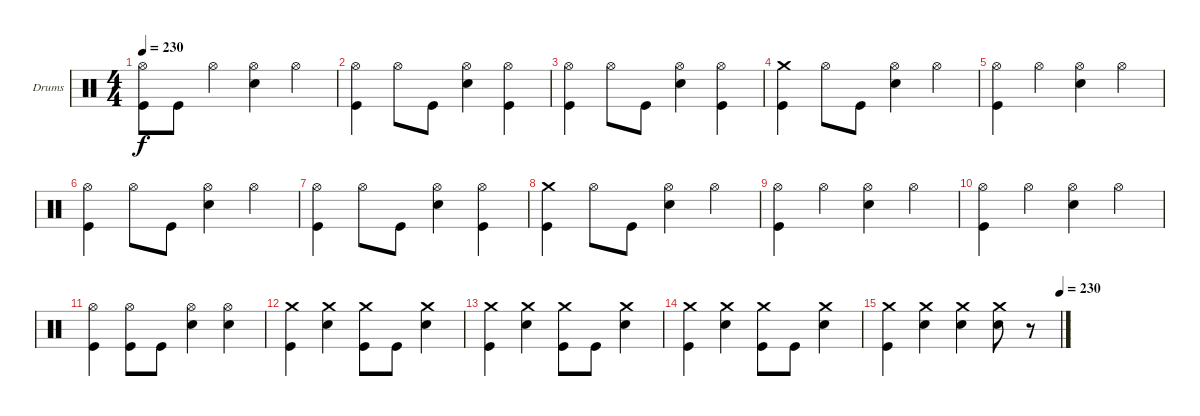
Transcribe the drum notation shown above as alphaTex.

\defaultSystemsLayout 4
\bracketExtendMode groupsimilarinstruments
\firstSystemTrackNameOrientation horizontal
\otherSystemsTrackNameOrientation horizontal
\track ("Drumkit" "Drums") {instrument percussion}
\staff {score}
\articulation defaults
\ts (4 4)
\tempo 230
\clef neutral
\ks c
("Kick (hit)" "Hi-Hat (open)").8{dy f} "Kick (hit)".8 "Hi-Hat (open)".4 ("Snare (hit) 2" "Hi-Hat (open)").4 "Hi-Hat (open)".4 |
("Kick (hit)" "Hi-Hat (open)").4 "Hi-Hat (open)".8 "Kick (hit)".8 ("Snare (hit) 2" "Hi-Hat (open)").4 ("Kick (hit)" "Hi-Hat (open)").4 |
("Kick (hit)" "Hi-Hat (open)").4 "Hi-Hat (open)".8 "Kick (hit)".8 ("Snare (hit) 2" "Hi-Hat (open)").4 ("Kick (hit)" "Hi-Hat (open)").4 |
("Kick (hit)" "Crash medium (hit)").4 "Hi-Hat (open)".8 "Kick (hit)".8 ("Snare (hit) 2" "Hi-Hat (open)").4 "Hi-Hat (open)".4 |
("Kick (hit)" "Hi-Hat (open)").4 "Hi-Hat (open)".4 ("Snare (hit) 2" "Hi-Hat (open)").4 "Hi-Hat (open)".4 |
("Kick (hit)" "Hi-Hat (open)").4 "Hi-Hat (open)".8 "Kick (hit)".8 ("Snare (hit) 2" "Hi-Hat (open)").4 "Hi-Hat (open)".4 |
("Kick (hit)" "Hi-Hat (open)").4 "Hi-Hat (open)".8 "Kick (hit)".8 ("Snare (hit) 2" "Hi-Hat (open)").4 ("Kick (hit)" "Hi-Hat (open)").4 |
("Kick (hit)" "Crash medium (hit)").4 "Hi-Hat (open)".8 "Kick (hit)".8 ("Snare (hit) 2" "Hi-Hat (open)").4 "Hi-Hat (open)".4 |
("Kick (hit)" "Hi-Hat (open)").4 "Hi-Hat (open)".4 ("Snare (hit) 2" "Hi-Hat (open)").4 "Hi-Hat (open)".4 |
("Kick (hit)" "Hi-Hat (open)").4 "Hi-Hat (open)".4 ("Snare (hit) 2" "Hi-Hat (open)").4 "Hi-Hat (open)".4 |
("Kick (hit)" "Hi-Hat (open)").4 ("Kick (hit)" "Hi-Hat (open)").8 "Kick (hit)".8 ("Snare (hit) 2" "Hi-Hat (open)").4 ("Snare (hit) 2" "Hi-Hat (open)").4 |
("Kick (hit)" "Crash medium (hit)").4 ("Snare (hit) 2" "Crash medium (hit)").4 ("Kick (hit)" "Crash medium (hit)").8 "Kick (hit)".8 ("Snare (hit) 2" "Crash medium (hit)").4 |
("Kick (hit)" "Crash medium (hit)").4 ("Snare (hit) 2" "Crash medium (hit)").4 ("Kick (hit)" "Crash medium (hit)").8 "Kick (hit)".8 ("Snare (hit) 2" "Crash medium (hit)").4 |
("Kick (hit)" "Crash medium (hit)").4 ("Snare (hit) 2" "Crash medium (hit)").4 ("Kick (hit)" "Crash medium (hit)").8 "Kick (hit)".8 ("Snare (hit) 2" "Crash medium (hit)").4 |
\tempo (230 1)
("Kick (hit)" "Crash medium (hit)").4 ("Snare (hit) 2" "Crash medium (hit)").4 ("Snare (hit) 2" "Crash medium (hit)").4 ("Snare (hit) 2" "Crash medium (hit)").8 r.8
